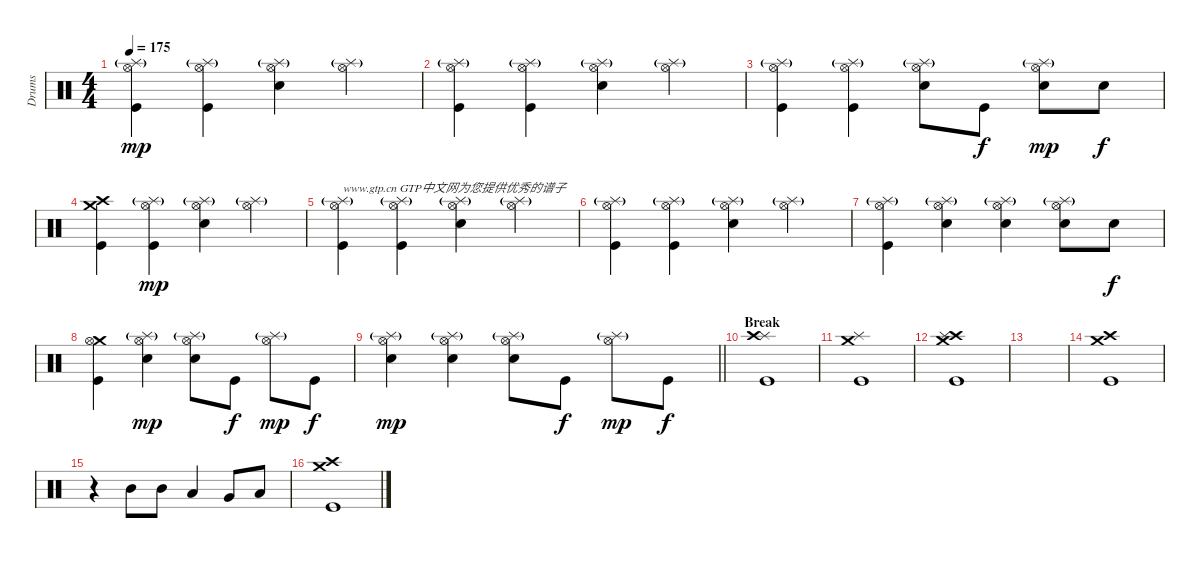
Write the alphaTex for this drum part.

\track ("Drums" "Drums") {instrument percussion}
\staff {score}
\articulation defaults
\ts (4 4)
\tempo 175
\clef neutral
\ks c
("Splash (hit)"{g} "Hi-Hat (open)" "Kick (hit)").4{dy mp} ("Splash (hit)"{g} "Hi-Hat (open)" "Kick (hit)").4 ("Splash (hit)"{g} "Hi-Hat (open)" "Electric Snare (hit)").4 ("Splash (hit)"{g} "Hi-Hat (open)").4 |
("Splash (hit)"{g} "Hi-Hat (open)" "Kick (hit)").4 ("Splash (hit)"{g} "Hi-Hat (open)" "Kick (hit)").4 ("Splash (hit)"{g} "Hi-Hat (open)" "Electric Snare (hit)").4 ("Splash (hit)"{g} "Hi-Hat (open)").4 |
("Splash (hit)"{g} "Hi-Hat (open)" "Kick (hit)").4 ("Splash (hit)"{g} "Hi-Hat (open)" "Kick (hit)").4 ("Splash (hit)"{g} "Hi-Hat (open)" "Electric Snare (hit)").8 "Kick (hit)".8{dy f} ("Splash (hit)"{g} "Hi-Hat (open)" "Electric Snare (hit)").8{dy mp} "Electric Snare (hit)".8{dy f} |
("Crash medium (hit)" "Crash high (hit)" "Kick (hit)").4 ("Splash (hit)"{g} "Hi-Hat (open)" "Kick (hit)").4{dy mp} ("Splash (hit)"{g} "Hi-Hat (open)" "Electric Snare (hit)").4 ("Splash (hit)"{g} "Hi-Hat (open)").4 |
("Splash (hit)"{g} "Hi-Hat (open)" "Kick (hit)").4{txt "www.gtp.cn GTP中文网为您提供优秀的谱子"} ("Splash (hit)"{g} "Hi-Hat (open)" "Kick (hit)").4 ("Splash (hit)"{g} "Hi-Hat (open)" "Electric Snare (hit)").4 ("Splash (hit)"{g} "Hi-Hat (open)").4 |
("Splash (hit)"{g} "Hi-Hat (open)" "Kick (hit)").4 ("Splash (hit)"{g} "Hi-Hat (open)" "Kick (hit)").4 ("Splash (hit)"{g} "Hi-Hat (open)" "Electric Snare (hit)").4 ("Splash (hit)"{g} "Hi-Hat (open)").4 |
("Splash (hit)"{g} "Hi-Hat (open)" "Kick (hit)").4 ("Splash (hit)"{g} "Hi-Hat (open)" "Electric Snare (hit)").4 ("Splash (hit)"{g} "Hi-Hat (open)" "Electric Snare (hit)").4 ("Splash (hit)"{g} "Hi-Hat (open)" "Electric Snare (hit)").8 "Electric Snare (hit)".8{dy f} |
("Crash medium (hit)" "Hi-Hat (open)" "Kick (hit)").4 ("Splash (hit)"{g} "Hi-Hat (open)" "Electric Snare (hit)").4{dy mp} ("Splash (hit)"{g} "Hi-Hat (open)" "Electric Snare (hit)").8 "Kick (hit)".8{dy f} ("Splash (hit)"{g} "Hi-Hat (open)").8{dy mp} "Kick (hit)".8{dy f} |
\barLineRight lightlight
("Splash (hit)"{g} "Hi-Hat (open)" "Electric Snare (hit)").4{dy mp} ("Splash (hit)"{g} "Hi-Hat (open)" "Electric Snare (hit)").4 ("Splash (hit)"{g} "Hi-Hat (open)" "Electric Snare (hit)").8 "Kick (hit)".8{dy f} ("Splash (hit)"{g} "Hi-Hat (open)").8{dy mp} "Kick (hit)".8{dy f} |
\section ("" "Break")
("Splash (hit)" "Crash high (hit)" "Kick (hit)").1 |
("Splash (hit)" "Crash medium (hit)" "Kick (hit)").1 |
("Crash medium (hit)" "Crash high (hit)" "Splash (hit)" "Kick (hit)").1 |
|
("Crash medium (hit)" "Crash high (hit)" "Kick (hit)").1 |
r.4 "Mid Tom (hit)".8 "Mid Tom (hit)".8 "Low Tom (hit)".4 "Very Low Tom (hit)".8 "Low Floor Tom (hit)".8 |
("Crash medium (hit)" "Crash high (hit)" "Kick (hit)").1
